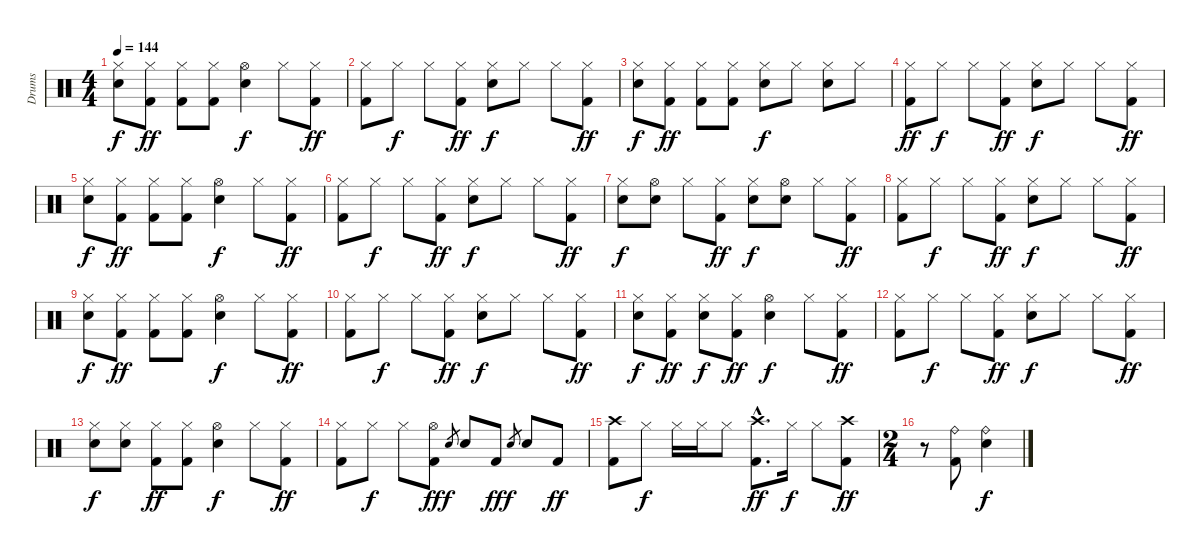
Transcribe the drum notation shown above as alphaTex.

\track ("Drums" "Drums") {instrument percussion}
\staff {score}
\articulation defaults
\ts (4 4)
\tempo 144
\clef neutral
\ks c
("Hi-Hat (closed)" "Snare (hit) 2").8{dy f} ("Hi-Hat (closed)" "Kick (hit) 2").8{dy ff} ("Hi-Hat (closed)" "Kick (hit) 2").8 ("Hi-Hat (closed)" "Kick (hit) 2").8 ("Hi-Hat (open)" "Snare (hit) 2").4{dy f} "Hi-Hat (closed)".8 ("Hi-Hat (closed)" "Kick (hit) 2").8{dy ff} |
("Hi-Hat (closed)" "Kick (hit) 2").8 "Hi-Hat (closed)".8{dy f} "Hi-Hat (closed)".8 ("Hi-Hat (closed)" "Kick (hit) 2").8{dy ff} ("Hi-Hat (closed)" "Snare (hit) 2").8{dy f} "Hi-Hat (closed)".8 "Hi-Hat (closed)".8 ("Hi-Hat (closed)" "Kick (hit) 2").8{dy ff} |
("Hi-Hat (closed)" "Snare (hit) 2").8{dy f} ("Hi-Hat (closed)" "Kick (hit) 2").8{dy ff} ("Hi-Hat (closed)" "Kick (hit) 2").8 ("Hi-Hat (closed)" "Kick (hit) 2").8 ("Hi-Hat (closed)" "Snare (hit) 2").8{dy f} "Hi-Hat (closed)".8 ("Hi-Hat (closed)" "Snare (hit) 2").8 "Hi-Hat (closed)".8 |
("Hi-Hat (closed)" "Kick (hit) 2").8{dy ff} "Hi-Hat (closed)".8{dy f} "Hi-Hat (closed)".8 ("Hi-Hat (closed)" "Kick (hit) 2").8{dy ff} ("Hi-Hat (closed)" "Snare (hit) 2").8{dy f} "Hi-Hat (closed)".8 "Hi-Hat (closed)".8 ("Hi-Hat (closed)" "Kick (hit) 2").8{dy ff} |
("Hi-Hat (closed)" "Snare (hit) 2").8{dy f} ("Hi-Hat (closed)" "Kick (hit) 2").8{dy ff} ("Hi-Hat (closed)" "Kick (hit) 2").8 ("Hi-Hat (closed)" "Kick (hit) 2").8 ("Hi-Hat (open)" "Snare (hit) 2").4{dy f} "Hi-Hat (closed)".8 ("Hi-Hat (closed)" "Kick (hit) 2").8{dy ff} |
("Hi-Hat (closed)" "Kick (hit) 2").8 "Hi-Hat (closed)".8{dy f} "Hi-Hat (closed)".8 ("Hi-Hat (closed)" "Kick (hit) 2").8{dy ff} ("Hi-Hat (closed)" "Snare (hit) 2").8{dy f} "Hi-Hat (closed)".8 "Hi-Hat (closed)".8 ("Hi-Hat (closed)" "Kick (hit) 2").8{dy ff} |
("Hi-Hat (closed)" "Snare (hit) 2").8{dy f} ("Hi-Hat (open)" "Snare (hit) 2").8 "Hi-Hat (closed)".8 ("Hi-Hat (closed)" "Kick (hit) 2").8{dy ff} ("Hi-Hat (closed)" "Snare (hit) 2").8{dy f} ("Hi-Hat (open)" "Snare (hit) 2").8 "Hi-Hat (closed)".8 ("Hi-Hat (closed)" "Kick (hit) 2").8{dy ff} |
("Hi-Hat (closed)" "Kick (hit) 2").8 "Hi-Hat (closed)".8{dy f} "Hi-Hat (closed)".8 ("Hi-Hat (closed)" "Kick (hit) 2").8{dy ff} ("Hi-Hat (closed)" "Snare (hit) 2").8{dy f} "Hi-Hat (closed)".8 "Hi-Hat (closed)".8 ("Hi-Hat (closed)" "Kick (hit) 2").8{dy ff} |
("Hi-Hat (closed)" "Snare (hit) 2").8{dy f} ("Hi-Hat (closed)" "Kick (hit) 2").8{dy ff} ("Hi-Hat (closed)" "Kick (hit) 2").8 ("Hi-Hat (closed)" "Kick (hit) 2").8 ("Hi-Hat (open)" "Snare (hit) 2").4{dy f} "Hi-Hat (closed)".8 ("Hi-Hat (closed)" "Kick (hit) 2").8{dy ff} |
("Hi-Hat (closed)" "Kick (hit) 2").8 "Hi-Hat (closed)".8{dy f} "Hi-Hat (closed)".8 ("Hi-Hat (closed)" "Kick (hit) 2").8{dy ff} ("Hi-Hat (closed)" "Snare (hit) 2").8{dy f} "Hi-Hat (closed)".8 "Hi-Hat (closed)".8 ("Hi-Hat (closed)" "Kick (hit) 2").8{dy ff} |
("Hi-Hat (closed)" "Snare (hit) 2").8{dy f} ("Hi-Hat (closed)" "Kick (hit) 2").8{dy ff} ("Hi-Hat (closed)" "Snare (hit) 2").8{dy f} ("Hi-Hat (closed)" "Kick (hit) 2").8{dy ff} ("Hi-Hat (open)" "Snare (hit) 2").4{dy f} "Hi-Hat (closed)".8 ("Hi-Hat (closed)" "Kick (hit) 2").8{dy ff} |
("Hi-Hat (closed)" "Kick (hit) 2").8 "Hi-Hat (closed)".8{dy f} "Hi-Hat (closed)".8 ("Hi-Hat (closed)" "Kick (hit) 2").8{dy ff} ("Hi-Hat (closed)" "Snare (hit) 2").8{dy f} "Hi-Hat (closed)".8 "Hi-Hat (closed)".8 ("Hi-Hat (closed)" "Kick (hit) 2").8{dy ff} |
("Hi-Hat (closed)" "Snare (hit) 2").8{dy f} ("Hi-Hat (closed)" "Snare (hit) 2").8 ("Hi-Hat (closed)" "Kick (hit) 2").8{dy ff} ("Hi-Hat (closed)" "Kick (hit) 2").8 ("Hi-Hat (open)" "Snare (hit) 2").4{dy f} "Hi-Hat (closed)".8 ("Hi-Hat (closed)" "Kick (hit) 2").8{dy ff} |
("Hi-Hat (closed)" "Kick (hit) 2").8 "Hi-Hat (closed)".8{dy f} "Hi-Hat (closed)".8 ("Hi-Hat (open)" "Kick (hit) 2").8{dy ff} "Snare (hit) 2".8{gr dy f} "Snare (hit) 2".8 "Kick (hit) 2".8{dy ff} "Snare (hit) 2".8{gr dy f} "Snare (hit) 2".8 "Kick (hit) 2".8{dy ff} |
("Crash high (hit)" "Kick (hit) 2").8 "Hi-Hat (closed)".8{dy f} "Hi-Hat (closed)".16 "Hi-Hat (closed)".16 "Hi-Hat (closed)".8 ("Crash high (hit)"{hac} "Kick (hit) 2"{hac}).8{d dy ff} "Hi-Hat (closed)".16{dy f} "Hi-Hat (closed)".8 ("Crash high (hit)" "Kick (hit) 2").8{dy ff} |
\ts (2 4)
r.8 ("Ride (bell)" "Kick (hit) 2").8 ("Ride (bell)" "Snare (hit) 2").4{dy f}
